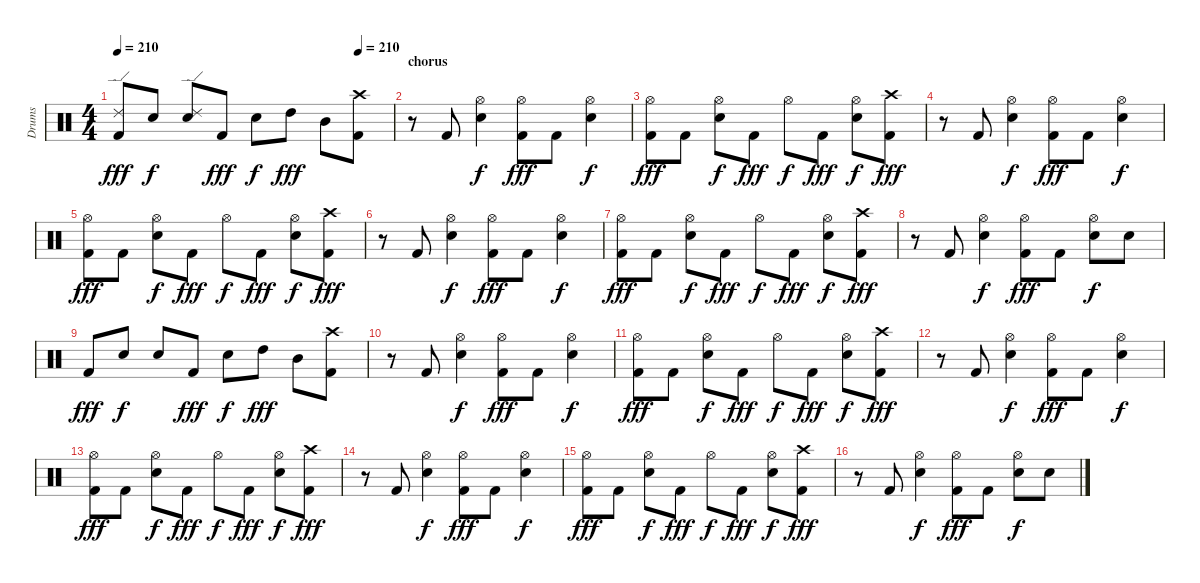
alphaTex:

\track ("Drums" "Drums") {instrument percussion}
\staff {score}
\articulation defaults
\ts (4 4)
\tempo 210
\tempo (210 0.875)
\clef neutral
\ks c
("Ride (edge) 2" "Kick (hit) 2").8{dy fff} "Snare (hit) 2".8{dy f} ("Ride (edge) 2" "Snare (hit) 2").8 "Kick (hit) 2".8{dy fff} "Snare (hit) 2".8{dy f} "High Tom (hit)".8{dy fff} "Mid Tom (hit)".8 ("Crash high (hit)" "Kick (hit) 2").8 |
\section ("" "chorus")
r.8 "Kick (hit) 2".8 ("Hi-Hat (open)" "Snare (hit) 2").4{dy f} ("Hi-Hat (open)" "Kick (hit) 2").8{dy fff} "Kick (hit) 2".8 ("Hi-Hat (open)" "Snare (hit) 2").4{dy f} |
("Hi-Hat (open)" "Kick (hit) 2").8{dy fff} "Kick (hit) 2".8 ("Hi-Hat (open)" "Snare (hit) 2").8{dy f} "Kick (hit) 2".8{dy fff} "Hi-Hat (open)".8{dy f} "Kick (hit) 2".8{dy fff} ("Hi-Hat (open)" "Snare (hit) 2").8{dy f} ("Crash high (hit)" "Kick (hit) 2").8{dy fff} |
r.8 "Kick (hit) 2".8 ("Hi-Hat (open)" "Snare (hit) 2").4{dy f} ("Hi-Hat (open)" "Kick (hit) 2").8{dy fff} "Kick (hit) 2".8 ("Hi-Hat (open)" "Snare (hit) 2").4{dy f} |
("Hi-Hat (open)" "Kick (hit) 2").8{dy fff} "Kick (hit) 2".8 ("Hi-Hat (open)" "Snare (hit) 2").8{dy f} "Kick (hit) 2".8{dy fff} "Hi-Hat (open)".8{dy f} "Kick (hit) 2".8{dy fff} ("Hi-Hat (open)" "Snare (hit) 2").8{dy f} ("Crash high (hit)" "Kick (hit) 2").8{dy fff} |
r.8 "Kick (hit) 2".8 ("Hi-Hat (open)" "Snare (hit) 2").4{dy f} ("Hi-Hat (open)" "Kick (hit) 2").8{dy fff} "Kick (hit) 2".8 ("Hi-Hat (open)" "Snare (hit) 2").4{dy f} |
("Hi-Hat (open)" "Kick (hit) 2").8{dy fff} "Kick (hit) 2".8 ("Hi-Hat (open)" "Snare (hit) 2").8{dy f} "Kick (hit) 2".8{dy fff} "Hi-Hat (open)".8{dy f} "Kick (hit) 2".8{dy fff} ("Hi-Hat (open)" "Snare (hit) 2").8{dy f} ("Crash high (hit)" "Kick (hit) 2").8{dy fff} |
r.8 "Kick (hit) 2".8 ("Hi-Hat (open)" "Snare (hit) 2").4{dy f} ("Hi-Hat (open)" "Kick (hit) 2").8{dy fff} "Kick (hit) 2".8 ("Hi-Hat (open)" "Snare (hit) 2").8{dy f} "Snare (hit) 2".8 |
"Kick (hit) 2".8{dy fff} "Snare (hit) 2".8{dy f} "Snare (hit) 2".8 "Kick (hit) 2".8{dy fff} "Snare (hit) 2".8{dy f} "High Tom (hit)".8{dy fff} "Mid Tom (hit)".8 ("Crash high (hit)" "Kick (hit) 2").8 |
r.8 "Kick (hit) 2".8 ("Hi-Hat (open)" "Snare (hit) 2").4{dy f} ("Hi-Hat (open)" "Kick (hit) 2").8{dy fff} "Kick (hit) 2".8 ("Hi-Hat (open)" "Snare (hit) 2").4{dy f} |
("Hi-Hat (open)" "Kick (hit) 2").8{dy fff} "Kick (hit) 2".8 ("Hi-Hat (open)" "Snare (hit) 2").8{dy f} "Kick (hit) 2".8{dy fff} "Hi-Hat (open)".8{dy f} "Kick (hit) 2".8{dy fff} ("Hi-Hat (open)" "Snare (hit) 2").8{dy f} ("Crash high (hit)" "Kick (hit) 2").8{dy fff} |
r.8 "Kick (hit) 2".8 ("Hi-Hat (open)" "Snare (hit) 2").4{dy f} ("Hi-Hat (open)" "Kick (hit) 2").8{dy fff} "Kick (hit) 2".8 ("Hi-Hat (open)" "Snare (hit) 2").4{dy f} |
("Hi-Hat (open)" "Kick (hit) 2").8{dy fff} "Kick (hit) 2".8 ("Hi-Hat (open)" "Snare (hit) 2").8{dy f} "Kick (hit) 2".8{dy fff} "Hi-Hat (open)".8{dy f} "Kick (hit) 2".8{dy fff} ("Hi-Hat (open)" "Snare (hit) 2").8{dy f} ("Crash high (hit)" "Kick (hit) 2").8{dy fff} |
r.8 "Kick (hit) 2".8 ("Hi-Hat (open)" "Snare (hit) 2").4{dy f} ("Hi-Hat (open)" "Kick (hit) 2").8{dy fff} "Kick (hit) 2".8 ("Hi-Hat (open)" "Snare (hit) 2").4{dy f} |
("Hi-Hat (open)" "Kick (hit) 2").8{dy fff} "Kick (hit) 2".8 ("Hi-Hat (open)" "Snare (hit) 2").8{dy f} "Kick (hit) 2".8{dy fff} "Hi-Hat (open)".8{dy f} "Kick (hit) 2".8{dy fff} ("Hi-Hat (open)" "Snare (hit) 2").8{dy f} ("Crash high (hit)" "Kick (hit) 2").8{dy fff} |
r.8 "Kick (hit) 2".8 ("Hi-Hat (open)" "Snare (hit) 2").4{dy f} ("Hi-Hat (open)" "Kick (hit) 2").8{dy fff} "Kick (hit) 2".8 ("Hi-Hat (open)" "Snare (hit) 2").8{dy f} "Snare (hit) 2".8
